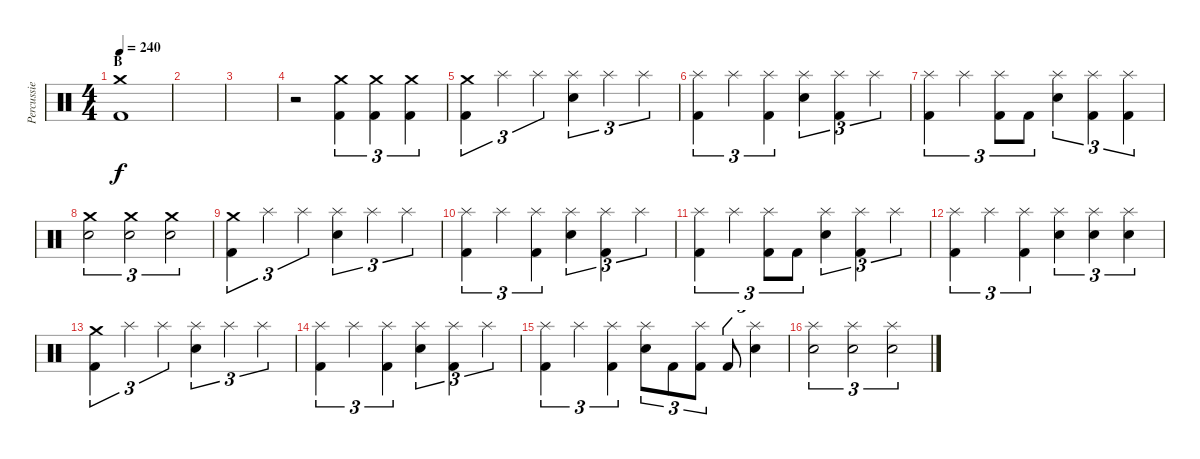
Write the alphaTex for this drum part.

\track ("Percussie" "Percussie") {instrument percussion}
\staff {score}
\articulation defaults
\ts (4 4)
\section ("" "B")
\tempo 240
\clef neutral
\ks c
("Crash medium (hit)" "Kick (hit) 2").1{dy f} |
|
|
r.2 ("Crash medium (hit)" "Kick (hit) 2").4{tu (3 2)} ("Crash medium (hit)" "Kick (hit) 2").4{tu (3 2)} ("Crash medium (hit)" "Kick (hit) 2").4{tu (3 2)} |
("Crash medium (hit)" "Kick (hit) 2").4{tu (3 2)} "Splash (hit)".4{tu (3 2)} "Splash (hit)".4{tu (3 2)} ("Splash (hit)" "Electric Snare (hit)").4{tu (3 2)} "Splash (hit)".4{tu (3 2)} "Splash (hit)".4{tu (3 2)} |
("Splash (hit)" "Kick (hit) 2").4{tu (3 2)} "Splash (hit)".4{tu (3 2)} ("Splash (hit)" "Kick (hit) 2").4{tu (3 2)} ("Splash (hit)" "Electric Snare (hit)").4{tu (3 2)} ("Splash (hit)" "Kick (hit) 2").4{tu (3 2)} "Splash (hit)".4{tu (3 2)} |
("Splash (hit)" "Kick (hit) 2").4{tu (3 2)} "Splash (hit)".4{tu (3 2)} ("Splash (hit)" "Kick (hit) 2").8{tu (3 2)} "Kick (hit) 2".8{tu (3 2)} ("Splash (hit)" "Electric Snare (hit)").4{tu (3 2)} ("Splash (hit)" "Kick (hit) 2").4{tu (3 2)} ("Splash (hit)" "Kick (hit) 2").4{tu (3 2)} |
("Crash medium (hit)" "Electric Snare (hit)").2{tu (3 2)} ("Crash medium (hit)" "Electric Snare (hit)").2{tu (3 2)} ("Crash medium (hit)" "Electric Snare (hit)").2{tu (3 2)} |
("Crash medium (hit)" "Kick (hit) 2").4{tu (3 2)} "Splash (hit)".4{tu (3 2)} "Splash (hit)".4{tu (3 2)} ("Splash (hit)" "Electric Snare (hit)").4{tu (3 2)} "Splash (hit)".4{tu (3 2)} "Splash (hit)".4{tu (3 2)} |
("Splash (hit)" "Kick (hit) 2").4{tu (3 2)} "Splash (hit)".4{tu (3 2)} ("Splash (hit)" "Kick (hit) 2").4{tu (3 2)} ("Splash (hit)" "Electric Snare (hit)").4{tu (3 2)} ("Splash (hit)" "Kick (hit) 2").4{tu (3 2)} "Splash (hit)".4{tu (3 2)} |
("Splash (hit)" "Kick (hit) 2").4{tu (3 2)} "Splash (hit)".4{tu (3 2)} ("Splash (hit)" "Kick (hit) 2").8{tu (3 2)} "Kick (hit) 2".8{tu (3 2)} ("Splash (hit)" "Electric Snare (hit)").4{tu (3 2)} ("Splash (hit)" "Kick (hit) 2").4{tu (3 2)} "Splash (hit)".4{tu (3 2)} |
("Splash (hit)" "Kick (hit) 2").4{tu (3 2)} "Splash (hit)".4{tu (3 2)} ("Splash (hit)" "Kick (hit) 2").4{tu (3 2)} ("Splash (hit)" "Electric Snare (hit)").4{tu (3 2)} ("Splash (hit)" "Electric Snare (hit)").4{tu (3 2)} ("Splash (hit)" "Electric Snare (hit)").4{tu (3 2)} |
("Crash medium (hit)" "Kick (hit) 2").4{tu (3 2)} "Splash (hit)".4{tu (3 2)} "Splash (hit)".4{tu (3 2)} ("Splash (hit)" "Electric Snare (hit)").4{tu (3 2)} "Splash (hit)".4{tu (3 2)} "Splash (hit)".4{tu (3 2)} |
("Splash (hit)" "Kick (hit) 2").4{tu (3 2)} "Splash (hit)".4{tu (3 2)} ("Splash (hit)" "Kick (hit) 2").4{tu (3 2)} ("Splash (hit)" "Electric Snare (hit)").4{tu (3 2)} ("Splash (hit)" "Kick (hit) 2").4{tu (3 2)} "Splash (hit)".4{tu (3 2)} |
("Splash (hit)" "Kick (hit) 2").4{tu (3 2)} "Splash (hit)".4{tu (3 2)} ("Splash (hit)" "Kick (hit) 2").4{tu (3 2)} ("Splash (hit)" "Electric Snare (hit)").8{tu (3 2)} "Kick (hit) 2".8{tu (3 2)} ("Splash (hit)" "Kick (hit) 2").8{tu (3 2)} "Kick (hit) 2".8{tu (3 2)} ("Splash (hit)" "Electric Snare (hit)").4{tu (3 2)} |
("Splash (hit)" "Electric Snare (hit)").2{tu (3 2)} ("Splash (hit)" "Electric Snare (hit)").2{tu (3 2)} ("Splash (hit)" "Electric Snare (hit)").2{tu (3 2)}
